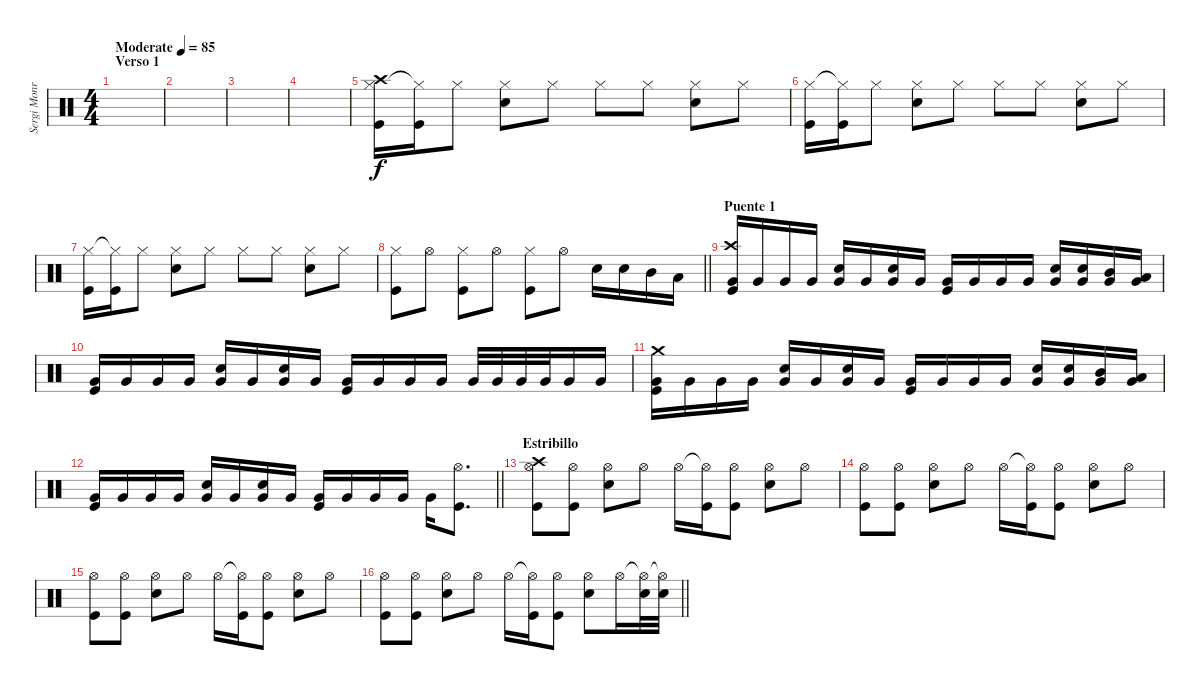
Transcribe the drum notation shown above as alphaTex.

\track ("Sergi Monroy" "Sergi Monr") {instrument percussion}
\staff {score}
\articulation defaults
\ts (4 4)
\section ("" "Verso 1")
\tempo (85 "Moderate")
\clef neutral
\ks c
|
|
|
|
("Hi-Hat (closed)" "Kick (hit)" "Crash high (hit)").16 ("Hi-Hat (closed)"{t} "Kick (hit)").16 "Hi-Hat (closed)".8 ("Hi-Hat (closed)" "Electric Snare (hit)").8 "Hi-Hat (closed)".8 "Hi-Hat (closed)".8 "Hi-Hat (closed)".8 ("Hi-Hat (closed)" "Electric Snare (hit)").8 "Hi-Hat (closed)".8 |
("Hi-Hat (closed)" "Kick (hit)").16 ("Hi-Hat (closed)"{t} "Kick (hit)").16 "Hi-Hat (closed)".8 ("Hi-Hat (closed)" "Electric Snare (hit)").8 "Hi-Hat (closed)".8 "Hi-Hat (closed)".8 "Hi-Hat (closed)".8 ("Hi-Hat (closed)" "Electric Snare (hit)").8 "Hi-Hat (closed)".8 |
("Hi-Hat (closed)" "Kick (hit)").16 ("Hi-Hat (closed)"{t} "Kick (hit)").16 "Hi-Hat (closed)".8 ("Hi-Hat (closed)" "Electric Snare (hit)").8 "Hi-Hat (closed)".8 "Hi-Hat (closed)".8 "Hi-Hat (closed)".8 ("Hi-Hat (closed)" "Electric Snare (hit)").8 "Hi-Hat (closed)".8 |
\barLineRight lightlight
("Hi-Hat (closed)" "Kick (hit)").8 "Hi-Hat (open)".8 ("Hi-Hat (closed)" "Kick (hit)").8 "Hi-Hat (open)".8 ("Hi-Hat (closed)" "Kick (hit)").8 "Hi-Hat (open)".8 "Electric Snare (hit)".16 "Electric Snare (hit)".16 "Mid Tom (hit)".16 "Low Tom (hit)".16 |
\section ("" "Puente 1")
("Very Low Tom (hit)" "Kick (hit)" "Crash high (hit)").16 "Very Low Tom (hit)".16 "Very Low Tom (hit)".16 "Very Low Tom (hit)".16 ("Very Low Tom (hit)" "Electric Snare (hit)").16 "Very Low Tom (hit)".16 ("Very Low Tom (hit)" "Electric Snare (hit)").16 "Very Low Tom (hit)".16 ("Very Low Tom (hit)" "Kick (hit)").16 "Very Low Tom (hit)".16 "Very Low Tom (hit)".16 "Very Low Tom (hit)".16 ("Very Low Tom (hit)" "Electric Snare (hit)").16 ("Very Low Tom (hit)" "Electric Snare (hit)").16 ("Very Low Tom (hit)" "Mid Tom (hit)").16 ("Very Low Tom (hit)" "Low Tom (hit)").16 |
("Very Low Tom (hit)" "Kick (hit)").16 "Very Low Tom (hit)".16 "Very Low Tom (hit)".16 "Very Low Tom (hit)".16 ("Very Low Tom (hit)" "Electric Snare (hit)").16 "Very Low Tom (hit)".16 ("Very Low Tom (hit)" "Electric Snare (hit)").16 "Very Low Tom (hit)".16 ("Very Low Tom (hit)" "Kick (hit)").16 "Very Low Tom (hit)".16 "Very Low Tom (hit)".16 "Very Low Tom (hit)".16 "Very Low Tom (hit)".32 "Very Low Tom (hit)".32 "Very Low Tom (hit)".32 "Very Low Tom (hit)".32 "Very Low Tom (hit)".16 "Very Low Tom (hit)".16 |
("Very Low Tom (hit)" "Kick (hit)" "Crash medium (hit)").16 "Very Low Tom (hit)".16 "Very Low Tom (hit)".16 "Very Low Tom (hit)".16 ("Very Low Tom (hit)" "Electric Snare (hit)").16 "Very Low Tom (hit)".16 ("Very Low Tom (hit)" "Electric Snare (hit)").16 "Very Low Tom (hit)".16 ("Very Low Tom (hit)" "Kick (hit)").16 "Very Low Tom (hit)".16 "Very Low Tom (hit)".16 "Very Low Tom (hit)".16 ("Very Low Tom (hit)" "Electric Snare (hit)").16 ("Very Low Tom (hit)" "Electric Snare (hit)").16 ("Very Low Tom (hit)" "Mid Tom (hit)").16 ("Very Low Tom (hit)" "Low Tom (hit)").16 |
\barLineRight lightlight
("Very Low Tom (hit)" "Kick (hit)").16 "Very Low Tom (hit)".16 "Very Low Tom (hit)".16 "Very Low Tom (hit)".16 ("Very Low Tom (hit)" "Electric Snare (hit)").16 "Very Low Tom (hit)".16 ("Very Low Tom (hit)" "Electric Snare (hit)").16 "Very Low Tom (hit)".16 ("Very Low Tom (hit)" "Kick (hit)").16 "Very Low Tom (hit)".16 "Very Low Tom (hit)".16 "Very Low Tom (hit)".16 "Very Low Tom (hit)".16 ("Hi-Hat (open)" "Kick (hit)").8{d} |
\section ("" "Estribillo ")
("Hi-Hat (open)" "Kick (hit)" "Crash high (hit)").8 ("Hi-Hat (open)" "Kick (hit)").8 ("Hi-Hat (open)" "Electric Snare (hit)").8 "Hi-Hat (open)".8 "Hi-Hat (open)".16 ("Hi-Hat (open)"{t} "Kick (hit)").16 ("Hi-Hat (open)" "Kick (hit)").8 ("Hi-Hat (open)" "Electric Snare (hit)").8 "Hi-Hat (open)".8 |
("Hi-Hat (open)" "Kick (hit)").8 ("Hi-Hat (open)" "Kick (hit)").8 ("Hi-Hat (open)" "Electric Snare (hit)").8 "Hi-Hat (open)".8 "Hi-Hat (open)".16 ("Hi-Hat (open)"{t} "Kick (hit)").16 ("Hi-Hat (open)" "Kick (hit)").8 ("Hi-Hat (open)" "Electric Snare (hit)").8 "Hi-Hat (open)".8 |
("Hi-Hat (open)" "Kick (hit)").8 ("Hi-Hat (open)" "Kick (hit)").8 ("Hi-Hat (open)" "Electric Snare (hit)").8 "Hi-Hat (open)".8 "Hi-Hat (open)".16 ("Hi-Hat (open)"{t} "Kick (hit)").16 ("Hi-Hat (open)" "Kick (hit)").8 ("Hi-Hat (open)" "Electric Snare (hit)").8 "Hi-Hat (open)".8 |
\barLineRight lightlight
("Hi-Hat (open)" "Kick (hit)").8 ("Hi-Hat (open)" "Kick (hit)").8 ("Hi-Hat (open)" "Electric Snare (hit)").8 "Hi-Hat (open)".8 "Hi-Hat (open)".16 ("Hi-Hat (open)"{t} "Kick (hit)").16 ("Hi-Hat (open)" "Kick (hit)").8 ("Hi-Hat (open)" "Electric Snare (hit)").8 "Hi-Hat (open)".16 ("Hi-Hat (open)"{t} "Electric Snare (hit)").32 ("Hi-Hat (open)"{t} "Electric Snare (hit)").32
